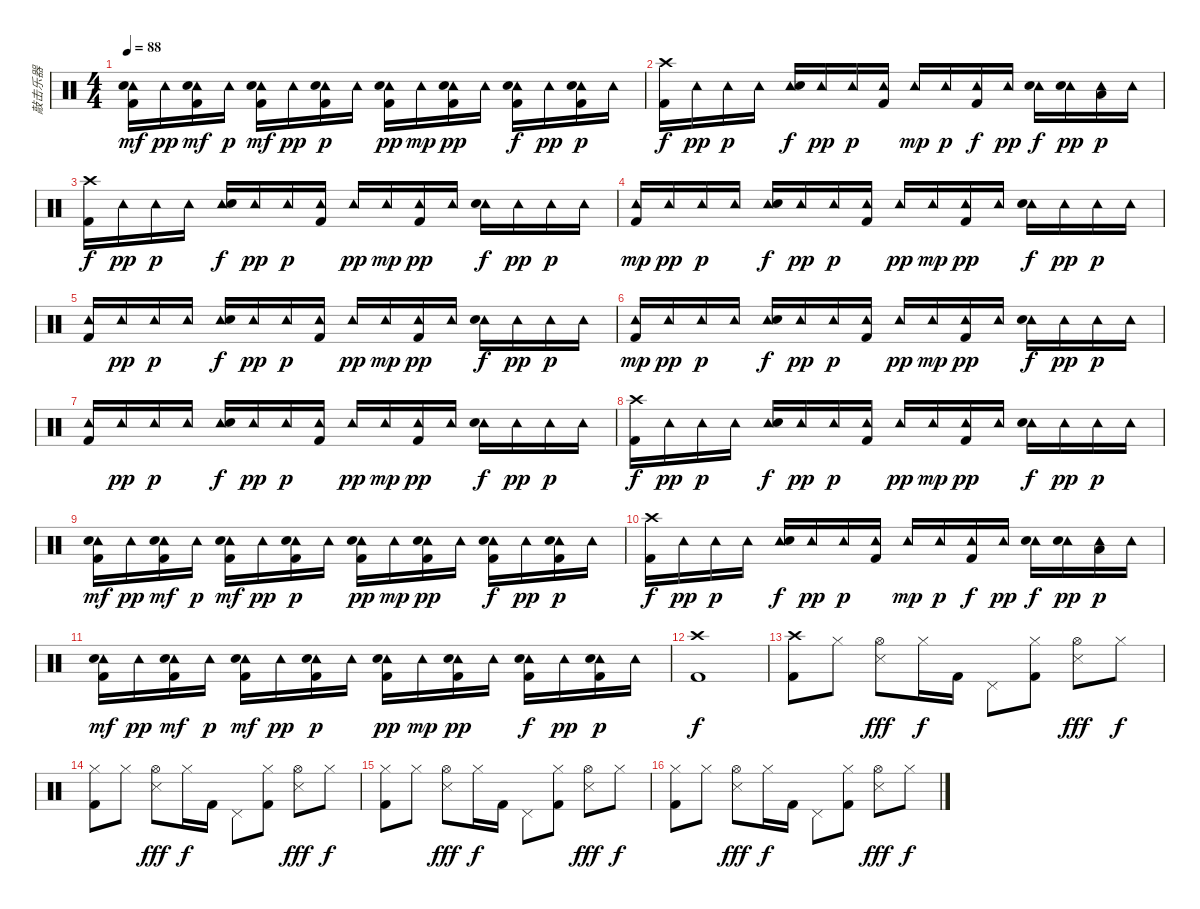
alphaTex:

\track ("敲击乐器" "敲击乐器") {instrument percussion}
\staff {score}
\articulation defaults
\ts (4 4)
\tempo 88
\clef neutral
\ks c
("Tambourine (hit)" "Kick (hit) 2" "Electric Snare (hit)").16{dy mf} "Tambourine (hit)".16{dy pp} ("Tambourine (hit)" "Kick (hit) 2" "Electric Snare (hit)").16{dy mf} "Tambourine (hit)".16{dy p} ("Tambourine (hit)" "Kick (hit) 2" "Electric Snare (hit)").16{dy mf} "Tambourine (hit)".16{dy pp} ("Tambourine (hit)" "Kick (hit) 2" "Electric Snare (hit)").16{dy p} "Tambourine (hit)".16 ("Tambourine (hit)" "Kick (hit) 2" "Electric Snare (hit)").16{dy pp} "Tambourine (hit)".16{dy mp} ("Tambourine (hit)" "Kick (hit) 2" "Electric Snare (hit)").16{dy pp} "Tambourine (hit)".16 ("Tambourine (hit)" "Kick (hit) 2" "Electric Snare (hit)").16{dy f} "Tambourine (hit)".16{dy pp} ("Tambourine (hit)" "Kick (hit) 2" "Electric Snare (hit)").16{dy p} "Tambourine (hit)".16 |
("Crash high (hit)" "Kick (hit) 2").16{dy f} "Tambourine (hit)".16{dy pp} "Tambourine (hit)".16{dy p} "Tambourine (hit)".16 ("Tambourine (hit)" "Electric Snare (hit)").16{dy f} "Tambourine (hit)".16{dy pp} "Tambourine (hit)".16{dy p} ("Tambourine (hit)" "Kick (hit) 2").16 "Tambourine (hit)".16{dy mp} "Tambourine (hit)".16{dy p} ("Tambourine (hit)" "Kick (hit) 2").16{dy f} "Tambourine (hit)".16{dy pp} ("Tambourine (hit)" "Electric Snare (hit)").16{dy f} ("Tambourine (hit)" "Electric Snare (hit)").16{dy pp} ("Tambourine (hit)" "Low Tom (hit)").16{dy p} "Tambourine (hit)".16 |
("Crash high (hit)" "Kick (hit) 2").16{dy f} "Tambourine (hit)".16{dy pp} "Tambourine (hit)".16{dy p} "Tambourine (hit)".16 ("Tambourine (hit)" "Electric Snare (hit)").16{dy f} "Tambourine (hit)".16{dy pp} "Tambourine (hit)".16{dy p} ("Tambourine (hit)" "Kick (hit) 2").16 "Tambourine (hit)".16{dy pp} "Tambourine (hit)".16{dy mp} ("Tambourine (hit)" "Kick (hit) 2").16{dy pp} "Tambourine (hit)".16 ("Tambourine (hit)" "Electric Snare (hit)").16{dy f} "Tambourine (hit)".16{dy pp} "Tambourine (hit)".16{dy p} "Tambourine (hit)".16 |
("Tambourine (hit)" "Kick (hit) 2").16{dy mp} "Tambourine (hit)".16{dy pp} "Tambourine (hit)".16{dy p} "Tambourine (hit)".16 ("Tambourine (hit)" "Electric Snare (hit)").16{dy f} "Tambourine (hit)".16{dy pp} "Tambourine (hit)".16{dy p} ("Tambourine (hit)" "Kick (hit) 2").16 "Tambourine (hit)".16{dy pp} "Tambourine (hit)".16{dy mp} ("Tambourine (hit)" "Kick (hit) 2").16{dy pp} "Tambourine (hit)".16 ("Tambourine (hit)" "Electric Snare (hit)").16{dy f} "Tambourine (hit)".16{dy pp} "Tambourine (hit)".16{dy p} "Tambourine (hit)".16 |
("Tambourine (hit)" "Kick (hit) 2").16 "Tambourine (hit)".16{dy pp} "Tambourine (hit)".16{dy p} "Tambourine (hit)".16 ("Tambourine (hit)" "Electric Snare (hit)").16{dy f} "Tambourine (hit)".16{dy pp} "Tambourine (hit)".16{dy p} ("Tambourine (hit)" "Kick (hit) 2").16 "Tambourine (hit)".16{dy pp} "Tambourine (hit)".16{dy mp} ("Tambourine (hit)" "Kick (hit) 2").16{dy pp} "Tambourine (hit)".16 ("Tambourine (hit)" "Electric Snare (hit)").16{dy f} "Tambourine (hit)".16{dy pp} "Tambourine (hit)".16{dy p} "Tambourine (hit)".16 |
("Tambourine (hit)" "Kick (hit) 2").16{dy mp} "Tambourine (hit)".16{dy pp} "Tambourine (hit)".16{dy p} "Tambourine (hit)".16 ("Tambourine (hit)" "Electric Snare (hit)").16{dy f} "Tambourine (hit)".16{dy pp} "Tambourine (hit)".16{dy p} ("Tambourine (hit)" "Kick (hit) 2").16 "Tambourine (hit)".16{dy pp} "Tambourine (hit)".16{dy mp} ("Tambourine (hit)" "Kick (hit) 2").16{dy pp} "Tambourine (hit)".16 ("Tambourine (hit)" "Electric Snare (hit)").16{dy f} "Tambourine (hit)".16{dy pp} "Tambourine (hit)".16{dy p} "Tambourine (hit)".16 |
("Tambourine (hit)" "Kick (hit) 2").16 "Tambourine (hit)".16{dy pp} "Tambourine (hit)".16{dy p} "Tambourine (hit)".16 ("Tambourine (hit)" "Electric Snare (hit)").16{dy f} "Tambourine (hit)".16{dy pp} "Tambourine (hit)".16{dy p} ("Tambourine (hit)" "Kick (hit) 2").16 "Tambourine (hit)".16{dy pp} "Tambourine (hit)".16{dy mp} ("Tambourine (hit)" "Kick (hit) 2").16{dy pp} "Tambourine (hit)".16 ("Tambourine (hit)" "Electric Snare (hit)").16{dy f} "Tambourine (hit)".16{dy pp} "Tambourine (hit)".16{dy p} "Tambourine (hit)".16 |
("Crash high (hit)" "Kick (hit) 2").16{dy f} "Tambourine (hit)".16{dy pp} "Tambourine (hit)".16{dy p} "Tambourine (hit)".16 ("Tambourine (hit)" "Electric Snare (hit)").16{dy f} "Tambourine (hit)".16{dy pp} "Tambourine (hit)".16{dy p} ("Tambourine (hit)" "Kick (hit) 2").16 "Tambourine (hit)".16{dy pp} "Tambourine (hit)".16{dy mp} ("Tambourine (hit)" "Kick (hit) 2").16{dy pp} "Tambourine (hit)".16 ("Tambourine (hit)" "Electric Snare (hit)").16{dy f} "Tambourine (hit)".16{dy pp} "Tambourine (hit)".16{dy p} "Tambourine (hit)".16 |
("Tambourine (hit)" "Kick (hit) 2" "Electric Snare (hit)").16{dy mf} "Tambourine (hit)".16{dy pp} ("Tambourine (hit)" "Kick (hit) 2" "Electric Snare (hit)").16{dy mf} "Tambourine (hit)".16{dy p} ("Tambourine (hit)" "Kick (hit) 2" "Electric Snare (hit)").16{dy mf} "Tambourine (hit)".16{dy pp} ("Tambourine (hit)" "Kick (hit) 2" "Electric Snare (hit)").16{dy p} "Tambourine (hit)".16 ("Tambourine (hit)" "Kick (hit) 2" "Electric Snare (hit)").16{dy pp} "Tambourine (hit)".16{dy mp} ("Tambourine (hit)" "Kick (hit) 2" "Electric Snare (hit)").16{dy pp} "Tambourine (hit)".16 ("Tambourine (hit)" "Kick (hit) 2" "Electric Snare (hit)").16{dy f} "Tambourine (hit)".16{dy pp} ("Tambourine (hit)" "Kick (hit) 2" "Electric Snare (hit)").16{dy p} "Tambourine (hit)".16 |
("Crash high (hit)" "Kick (hit) 2").16{dy f} "Tambourine (hit)".16{dy pp} "Tambourine (hit)".16{dy p} "Tambourine (hit)".16 ("Tambourine (hit)" "Electric Snare (hit)").16{dy f} "Tambourine (hit)".16{dy pp} "Tambourine (hit)".16{dy p} ("Tambourine (hit)" "Kick (hit) 2").16 "Tambourine (hit)".16{dy mp} "Tambourine (hit)".16{dy p} ("Tambourine (hit)" "Kick (hit) 2").16{dy f} "Tambourine (hit)".16{dy pp} ("Tambourine (hit)" "Electric Snare (hit)").16{dy f} ("Tambourine (hit)" "Electric Snare (hit)").16{dy pp} ("Tambourine (hit)" "Low Tom (hit)").16{dy p} "Tambourine (hit)".16 |
("Tambourine (hit)" "Kick (hit) 2" "Electric Snare (hit)").16{dy mf} "Tambourine (hit)".16{dy pp} ("Tambourine (hit)" "Kick (hit) 2" "Electric Snare (hit)").16{dy mf} "Tambourine (hit)".16{dy p} ("Tambourine (hit)" "Kick (hit) 2" "Electric Snare (hit)").16{dy mf} "Tambourine (hit)".16{dy pp} ("Tambourine (hit)" "Kick (hit) 2" "Electric Snare (hit)").16{dy p} "Tambourine (hit)".16 ("Tambourine (hit)" "Kick (hit) 2" "Electric Snare (hit)").16{dy pp} "Tambourine (hit)".16{dy mp} ("Tambourine (hit)" "Kick (hit) 2" "Electric Snare (hit)").16{dy pp} "Tambourine (hit)".16 ("Tambourine (hit)" "Kick (hit) 2" "Electric Snare (hit)").16{dy f} "Tambourine (hit)".16{dy pp} ("Tambourine (hit)" "Kick (hit) 2" "Electric Snare (hit)").16{dy p} "Tambourine (hit)".16 |
("Crash high (hit)" "Kick (hit) 2").1{dy f} |
("Crash high (hit)" "Kick (hit) 2").8 "Hi-Hat (closed)".8 ("Hi-Hat (open)" "Snare (side stick) 3").8{dy fff} "Hi-Hat (closed)".16{dy f} "Kick (hit) 2".16 "Pedal Hi-Hat (hit)".8 ("Hi-Hat (closed)" "Kick (hit) 2").8 ("Hi-Hat (open)" "Snare (side stick) 3").8{dy fff} "Hi-Hat (closed)".8{dy f} |
("Hi-Hat (closed)" "Kick (hit) 2").8 "Hi-Hat (closed)".8 ("Hi-Hat (open)" "Snare (side stick) 3").8{dy fff} "Hi-Hat (closed)".16{dy f} "Kick (hit) 2".16 "Pedal Hi-Hat (hit)".8 ("Hi-Hat (closed)" "Kick (hit) 2").8 ("Hi-Hat (open)" "Snare (side stick) 3").8{dy fff} "Hi-Hat (closed)".8{dy f} |
("Hi-Hat (closed)" "Kick (hit) 2").8 "Hi-Hat (closed)".8 ("Hi-Hat (open)" "Snare (side stick) 3").8{dy fff} "Hi-Hat (closed)".16{dy f} "Kick (hit) 2".16 "Pedal Hi-Hat (hit)".8 ("Hi-Hat (closed)" "Kick (hit) 2").8 ("Hi-Hat (open)" "Snare (side stick) 3").8{dy fff} "Hi-Hat (closed)".8{dy f} |
("Hi-Hat (closed)" "Kick (hit) 2").8 "Hi-Hat (closed)".8 ("Hi-Hat (open)" "Snare (side stick) 3").8{dy fff} "Hi-Hat (closed)".16{dy f} "Kick (hit) 2".16 "Pedal Hi-Hat (hit)".8 ("Hi-Hat (closed)" "Kick (hit) 2").8 ("Hi-Hat (open)" "Snare (side stick) 3").8{dy fff} "Hi-Hat (closed)".8{dy f}
